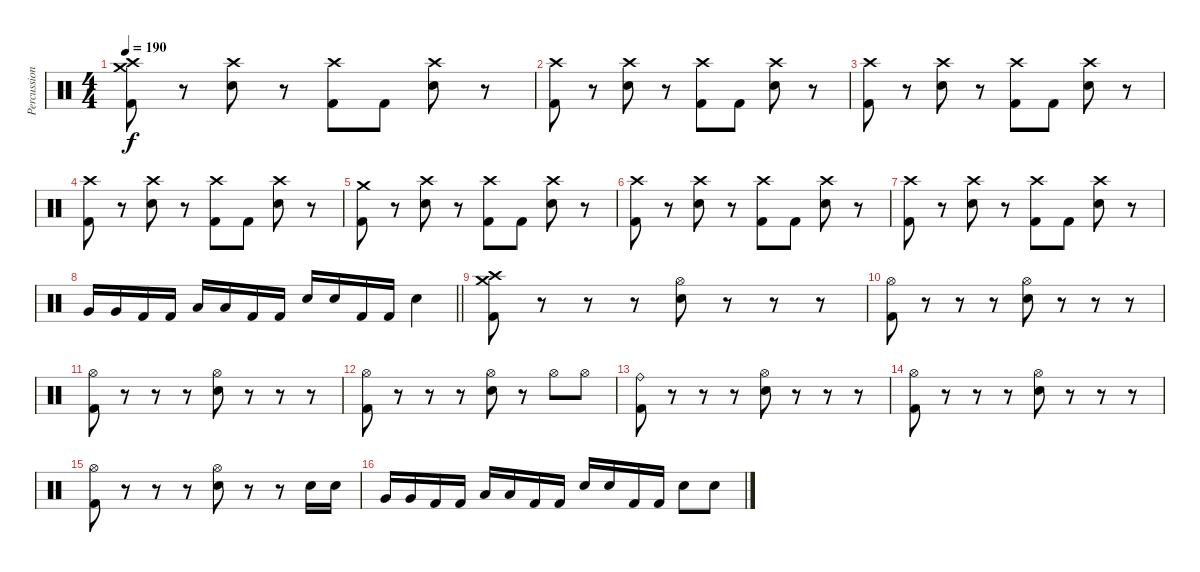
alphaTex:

\track ("Percussion" "Percussion") {instrument percussion}
\staff {score}
\articulation defaults
\ts (4 4)
\tempo 190
\clef neutral
\ks c
("Crash medium (hit)" "Crash high (hit)" "Kick (hit) 2").8{dy f} r.8 ("Crash high (hit)" "Snare (hit) 2").8 r.8 ("Crash high (hit)" "Kick (hit) 2").8 "Kick (hit) 2".8 ("Crash high (hit)" "Snare (hit) 2").8 r.8 |
("Crash high (hit)" "Kick (hit) 2").8 r.8 ("Crash high (hit)" "Snare (hit) 2").8 r.8 ("Crash high (hit)" "Kick (hit) 2").8 "Kick (hit) 2".8 ("Crash high (hit)" "Snare (hit) 2").8 r.8 |
("Crash high (hit)" "Kick (hit) 2").8 r.8 ("Crash high (hit)" "Snare (hit) 2").8 r.8 ("Crash high (hit)" "Kick (hit) 2").8 "Kick (hit) 2".8 ("Crash high (hit)" "Snare (hit) 2").8 r.8 |
("Crash high (hit)" "Kick (hit) 2").8 r.8 ("Crash high (hit)" "Snare (hit) 2").8 r.8 ("Crash high (hit)" "Kick (hit) 2").8 "Kick (hit) 2".8 ("Crash high (hit)" "Snare (hit) 2").8 r.8 |
("Crash medium (hit)" "Kick (hit) 2").8 r.8 ("Crash high (hit)" "Snare (hit) 2").8 r.8 ("Crash high (hit)" "Kick (hit) 2").8 "Kick (hit) 2".8 ("Crash high (hit)" "Snare (hit) 2").8 r.8 |
("Crash high (hit)" "Kick (hit) 2").8 r.8 ("Crash high (hit)" "Snare (hit) 2").8 r.8 ("Crash high (hit)" "Kick (hit) 2").8 "Kick (hit) 2".8 ("Crash high (hit)" "Snare (hit) 2").8 r.8 |
("Crash high (hit)" "Kick (hit) 2").8 r.8 ("Crash high (hit)" "Snare (hit) 2").8 r.8 ("Crash high (hit)" "Kick (hit) 2").8 "Kick (hit) 2".8 ("Crash high (hit)" "Snare (hit) 2").8 r.8 |
\barLineRight lightlight "Very Low Tom (hit)".16 "Very Low Tom (hit)".16 "Kick (hit) 2".16 "Kick (hit) 2".16 "Low Floor Tom (hit)".16 "Low Floor Tom (hit)".16 "Kick (hit) 2".16 "Kick (hit) 2".16 "Snare (hit) 2".16 "Snare (hit) 2".16 "Kick (hit) 2".16 "Kick (hit) 2".16 "Snare (hit) 2".4
|
("Crash high (hit)" "Crash medium (hit)" "Kick (hit) 2").8 r.8 r.8 r.8 ("Hi-Hat (open)" "Snare (hit) 2").8 r.8 r.8 r.8 |
("Hi-Hat (open)" "Kick (hit) 2").8 r.8 r.8 r.8 ("Hi-Hat (open)" "Snare (hit) 2").8 r.8 r.8 r.8 |
("Hi-Hat (open)" "Kick (hit) 2").8 r.8 r.8 r.8 ("Hi-Hat (open)" "Snare (hit) 2").8 r.8 r.8 r.8 |
("Hi-Hat (open)" "Kick (hit) 2").8 r.8 r.8 r.8 ("Hi-Hat (open)" "Snare (hit) 2").8 r.8 "Hi-Hat (open)".8 "Hi-Hat (open)".8 |
("Ride (bell)" "Kick (hit) 2").8 r.8 r.8 r.8 ("Hi-Hat (open)" "Snare (hit) 2").8 r.8 r.8 r.8 |
("Hi-Hat (open)" "Kick (hit) 2").8 r.8 r.8 r.8 ("Hi-Hat (open)" "Snare (hit) 2").8 r.8 r.8 r.8 |
("Hi-Hat (open)" "Kick (hit) 2").8 r.8 r.8 r.8 ("Hi-Hat (open)" "Snare (hit) 2").8 r.8 r.8 "Snare (hit) 2".16 "Snare (hit) 2".16 |
"Very Low Tom (hit)".16 "Very Low Tom (hit)".16 "Kick (hit) 2".16 "Kick (hit) 2".16 "Low Floor Tom (hit)".16 "Low Floor Tom (hit)".16 "Kick (hit) 2".16 "Kick (hit) 2".16 "Snare (hit) 2".16 "Snare (hit) 2".16 "Kick (hit) 2".16 "Kick (hit) 2".16 "Snare (hit) 2".8 "Snare (hit) 2".8
